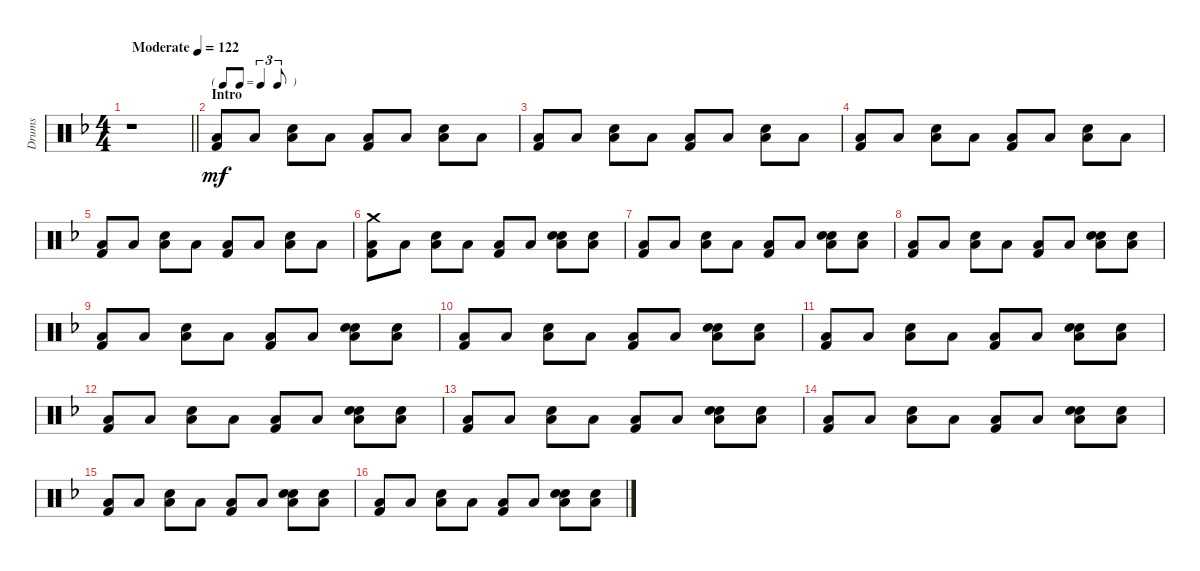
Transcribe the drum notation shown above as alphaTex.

\track ("Drums" "Drums") {instrument percussion}
\staff {score}
\articulation defaults
\ts (4 4)
\tempo (122 "Moderate")
\clef neutral
\barLineRight lightlight
\ks dminor
r.1{dy mf} |
\tf triplet8th
\section ("" "Intro")
("Low Floor Tom (hit)" "Kick (hit) 2").8 "Low Floor Tom (hit)".8 ("Low Floor Tom (hit)" "Snare (hit) 2").8 "Low Floor Tom (hit)".8 ("Low Floor Tom (hit)" "Kick (hit) 2").8 "Low Floor Tom (hit)".8 ("Low Floor Tom (hit)" "Snare (hit) 2").8 "Low Floor Tom (hit)".8 |
("Low Floor Tom (hit)" "Kick (hit) 2").8 "Low Floor Tom (hit)".8 ("Low Floor Tom (hit)" "Snare (hit) 2").8 "Low Floor Tom (hit)".8 ("Low Floor Tom (hit)" "Kick (hit) 2").8 "Low Floor Tom (hit)".8 ("Low Floor Tom (hit)" "Snare (hit) 2").8 "Low Floor Tom (hit)".8 |
("Low Floor Tom (hit)" "Kick (hit) 2").8 "Low Floor Tom (hit)".8 ("Low Floor Tom (hit)" "Snare (hit) 2").8 "Low Floor Tom (hit)".8 ("Low Floor Tom (hit)" "Kick (hit) 2").8 "Low Floor Tom (hit)".8 ("Low Floor Tom (hit)" "Snare (hit) 2").8 "Low Floor Tom (hit)".8 |
("Low Floor Tom (hit)" "Kick (hit) 2").8 "Low Floor Tom (hit)".8 ("Low Floor Tom (hit)" "Snare (hit) 2").8 "Low Floor Tom (hit)".8 ("Low Floor Tom (hit)" "Kick (hit) 2").8 "Low Floor Tom (hit)".8 ("Low Floor Tom (hit)" "Snare (hit) 2").8 "Low Floor Tom (hit)".8 |
("Crash medium (hit)" "Low Floor Tom (hit)" "Kick (hit) 2").8 "Low Floor Tom (hit)".8 ("Low Floor Tom (hit)" "Snare (hit) 2").8 "Low Floor Tom (hit)".8 ("Low Floor Tom (hit)" "Kick (hit) 2").8 "Low Floor Tom (hit)".8 ("Hand Clap (hit)" "Low Floor Tom (hit)" "Snare (hit) 2").8 ("Hand Clap (hit)" "Low Floor Tom (hit)").8 |
("Low Floor Tom (hit)" "Kick (hit) 2").8 "Low Floor Tom (hit)".8 ("Low Floor Tom (hit)" "Snare (hit) 2").8 "Low Floor Tom (hit)".8 ("Low Floor Tom (hit)" "Kick (hit) 2").8 "Low Floor Tom (hit)".8 ("Hand Clap (hit)" "Low Floor Tom (hit)" "Snare (hit) 2").8 ("Hand Clap (hit)" "Low Floor Tom (hit)").8 |
("Low Floor Tom (hit)" "Kick (hit) 2").8 "Low Floor Tom (hit)".8 ("Low Floor Tom (hit)" "Snare (hit) 2").8 "Low Floor Tom (hit)".8 ("Low Floor Tom (hit)" "Kick (hit) 2").8 "Low Floor Tom (hit)".8 ("Hand Clap (hit)" "Low Floor Tom (hit)" "Snare (hit) 2").8 ("Hand Clap (hit)" "Low Floor Tom (hit)").8 |
("Low Floor Tom (hit)" "Kick (hit) 2").8 "Low Floor Tom (hit)".8 ("Low Floor Tom (hit)" "Snare (hit) 2").8 "Low Floor Tom (hit)".8 ("Low Floor Tom (hit)" "Kick (hit) 2").8 "Low Floor Tom (hit)".8 ("Hand Clap (hit)" "Low Floor Tom (hit)" "Snare (hit) 2").8 ("Hand Clap (hit)" "Low Floor Tom (hit)").8 |
("Low Floor Tom (hit)" "Kick (hit) 2").8 "Low Floor Tom (hit)".8 ("Low Floor Tom (hit)" "Snare (hit) 2").8 "Low Floor Tom (hit)".8 ("Low Floor Tom (hit)" "Kick (hit) 2").8 "Low Floor Tom (hit)".8 ("Hand Clap (hit)" "Low Floor Tom (hit)" "Snare (hit) 2").8 ("Hand Clap (hit)" "Low Floor Tom (hit)").8 |
("Low Floor Tom (hit)" "Kick (hit) 2").8 "Low Floor Tom (hit)".8 ("Low Floor Tom (hit)" "Snare (hit) 2").8 "Low Floor Tom (hit)".8 ("Low Floor Tom (hit)" "Kick (hit) 2").8 "Low Floor Tom (hit)".8 ("Hand Clap (hit)" "Low Floor Tom (hit)" "Snare (hit) 2").8 ("Hand Clap (hit)" "Low Floor Tom (hit)").8 |
("Low Floor Tom (hit)" "Kick (hit) 2").8 "Low Floor Tom (hit)".8 ("Low Floor Tom (hit)" "Snare (hit) 2").8 "Low Floor Tom (hit)".8 ("Low Floor Tom (hit)" "Kick (hit) 2").8 "Low Floor Tom (hit)".8 ("Hand Clap (hit)" "Low Floor Tom (hit)" "Snare (hit) 2").8 ("Hand Clap (hit)" "Low Floor Tom (hit)").8 |
("Low Floor Tom (hit)" "Kick (hit) 2").8 "Low Floor Tom (hit)".8 ("Low Floor Tom (hit)" "Snare (hit) 2").8 "Low Floor Tom (hit)".8 ("Low Floor Tom (hit)" "Kick (hit) 2").8 "Low Floor Tom (hit)".8 ("Hand Clap (hit)" "Low Floor Tom (hit)" "Snare (hit) 2").8 ("Hand Clap (hit)" "Low Floor Tom (hit)").8 |
("Low Floor Tom (hit)" "Kick (hit) 2").8 "Low Floor Tom (hit)".8 ("Low Floor Tom (hit)" "Snare (hit) 2").8 "Low Floor Tom (hit)".8 ("Low Floor Tom (hit)" "Kick (hit) 2").8 "Low Floor Tom (hit)".8 ("Hand Clap (hit)" "Low Floor Tom (hit)" "Snare (hit) 2").8 ("Hand Clap (hit)" "Low Floor Tom (hit)").8 |
("Low Floor Tom (hit)" "Kick (hit) 2").8 "Low Floor Tom (hit)".8 ("Low Floor Tom (hit)" "Snare (hit) 2").8 "Low Floor Tom (hit)".8 ("Low Floor Tom (hit)" "Kick (hit) 2").8 "Low Floor Tom (hit)".8 ("Hand Clap (hit)" "Low Floor Tom (hit)" "Snare (hit) 2").8 ("Hand Clap (hit)" "Low Floor Tom (hit)").8 |
("Low Floor Tom (hit)" "Kick (hit) 2").8 "Low Floor Tom (hit)".8 ("Low Floor Tom (hit)" "Snare (hit) 2").8 "Low Floor Tom (hit)".8 ("Low Floor Tom (hit)" "Kick (hit) 2").8 "Low Floor Tom (hit)".8 ("Hand Clap (hit)" "Low Floor Tom (hit)" "Snare (hit) 2").8 ("Hand Clap (hit)" "Low Floor Tom (hit)").8
